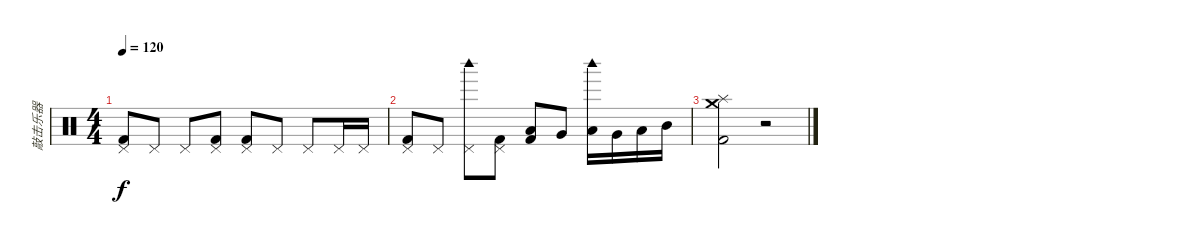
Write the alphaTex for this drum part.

\track ("敲击乐器" "敲击乐器") {instrument percussion}
\staff {score}
\articulation defaults
\ts (4 4)
\tempo 120
\clef neutral
\ks c
("Pedal Hi-Hat (hit)" "Kick (hit) 2").8{dy f} "Pedal Hi-Hat (hit)".8 "Pedal Hi-Hat (hit)".8 ("Pedal Hi-Hat (hit)" "Kick (hit) 2").8 ("Pedal Hi-Hat (hit)" "Kick (hit) 2").8 "Pedal Hi-Hat (hit)".8 "Pedal Hi-Hat (hit)".8 "Pedal Hi-Hat (hit)".16 "Pedal Hi-Hat (hit)".16 |
("Pedal Hi-Hat (hit)" "Kick (hit) 2").8 "Pedal Hi-Hat (hit)".8 ("Pedal Hi-Hat (hit)" "Woodblock high (hit)").8 ("Pedal Hi-Hat (hit)" "Kick (hit) 2").8 ("Low Floor Tom (hit)" "Kick (hit) 2").8 "Very Low Tom (hit)".8 ("Low Floor Tom (hit)" "Woodblock high (hit)").16 "Very Low Tom (hit)".16 "Low Tom (hit)".16 "Mid Tom (hit)".16 |
("Crash medium (hit)" "Splash (hit)" "Kick (hit) 2").2 r.2
